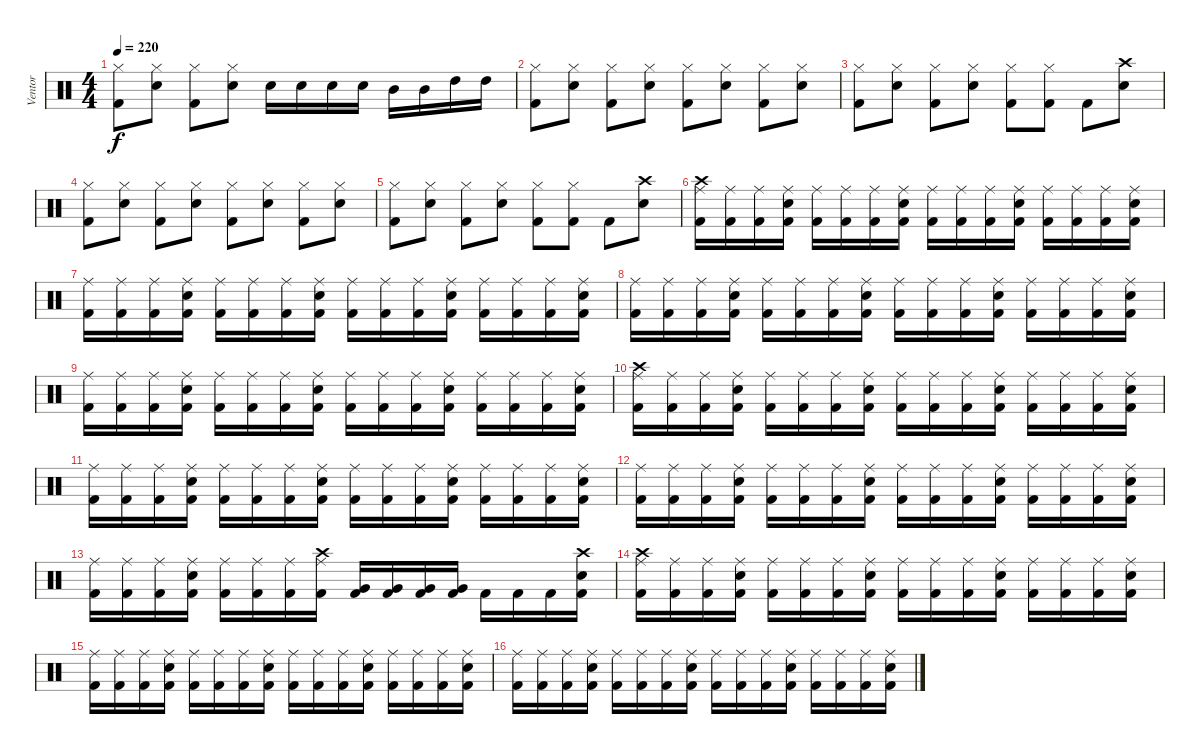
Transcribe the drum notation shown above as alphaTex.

\track ("Ventor" "Ventor") {instrument percussion}
\staff {score}
\articulation defaults
\ts (4 4)
\tempo 220
\clef neutral
\ks c
("Kick (hit) 2" "Hi-Hat (closed)").8{dy f} ("Snare (hit) 2" "Hi-Hat (closed)").8 ("Kick (hit) 2" "Hi-Hat (closed)").8 ("Snare (hit) 2" "Hi-Hat (closed)").8 "Snare (hit) 2".16 "Snare (hit) 2".16 "Snare (hit) 2".16 "Snare (hit) 2".16 "Mid Tom (hit)".16 "Mid Tom (hit)".16 "High Tom (hit)".16 "High Tom (hit)".16 |
("Kick (hit) 2" "Hi-Hat (closed)").8 ("Snare (hit) 2" "Hi-Hat (closed)").8 ("Kick (hit) 2" "Hi-Hat (closed)").8 ("Snare (hit) 2" "Hi-Hat (closed)").8 ("Kick (hit) 2" "Hi-Hat (closed)").8 ("Snare (hit) 2" "Hi-Hat (closed)").8 ("Kick (hit) 2" "Hi-Hat (closed)").8 ("Snare (hit) 2" "Hi-Hat (closed)").8 |
("Kick (hit) 2" "Hi-Hat (closed)").8 ("Snare (hit) 2" "Hi-Hat (closed)").8 ("Kick (hit) 2" "Hi-Hat (closed)").8 ("Snare (hit) 2" "Hi-Hat (closed)").8 ("Kick (hit) 2" "Hi-Hat (closed)").8 ("Kick (hit) 2" "Hi-Hat (closed)").8 "Kick (hit) 2".8 ("Snare (hit) 2" "Crash high (hit)").8 |
("Kick (hit) 2" "Hi-Hat (closed)").8 ("Snare (hit) 2" "Hi-Hat (closed)").8 ("Kick (hit) 2" "Hi-Hat (closed)").8 ("Snare (hit) 2" "Hi-Hat (closed)").8 ("Kick (hit) 2" "Hi-Hat (closed)").8 ("Snare (hit) 2" "Hi-Hat (closed)").8 ("Kick (hit) 2" "Hi-Hat (closed)").8 ("Snare (hit) 2" "Hi-Hat (closed)").8 |
("Kick (hit) 2" "Hi-Hat (closed)").8 ("Snare (hit) 2" "Hi-Hat (closed)").8 ("Kick (hit) 2" "Hi-Hat (closed)").8 ("Snare (hit) 2" "Hi-Hat (closed)").8 ("Kick (hit) 2" "Hi-Hat (closed)").8 ("Kick (hit) 2" "Hi-Hat (closed)").8 "Kick (hit) 2".8 ("Snare (hit) 2" "Crash high (hit)").8 |
("Crash high (hit)" "Kick (hit) 2" "Ride (middle)").16 ("Kick (hit) 2" "Ride (middle)").16 ("Kick (hit) 2" "Ride (middle)").16 ("Snare (hit) 2" "Kick (hit) 2" "Ride (middle)").16 ("Kick (hit) 2" "Ride (middle)").16 ("Kick (hit) 2" "Ride (middle)").16 ("Kick (hit) 2" "Ride (middle)").16 ("Snare (hit) 2" "Kick (hit) 2" "Ride (middle)").16 ("Kick (hit) 2" "Ride (middle)").16 ("Kick (hit) 2" "Ride (middle)").16 ("Kick (hit) 2" "Ride (middle)").16 ("Snare (hit) 2" "Kick (hit) 2" "Ride (middle)").16 ("Kick (hit) 2" "Ride (middle)").16 ("Kick (hit) 2" "Ride (middle)").16 ("Kick (hit) 2" "Ride (middle)").16 ("Snare (hit) 2" "Kick (hit) 2" "Ride (middle)").16 |
("Kick (hit) 2" "Ride (middle)").16 ("Kick (hit) 2" "Ride (middle)").16 ("Kick (hit) 2" "Ride (middle)").16 ("Snare (hit) 2" "Kick (hit) 2" "Ride (middle)").16 ("Kick (hit) 2" "Ride (middle)").16 ("Kick (hit) 2" "Ride (middle)").16 ("Kick (hit) 2" "Ride (middle)").16 ("Snare (hit) 2" "Kick (hit) 2" "Ride (middle)").16 ("Kick (hit) 2" "Ride (middle)").16 ("Kick (hit) 2" "Ride (middle)").16 ("Kick (hit) 2" "Ride (middle)").16 ("Snare (hit) 2" "Kick (hit) 2" "Ride (middle)").16 ("Kick (hit) 2" "Ride (middle)").16 ("Kick (hit) 2" "Ride (middle)").16 ("Kick (hit) 2" "Ride (middle)").16 ("Snare (hit) 2" "Kick (hit) 2" "Ride (middle)").16 |
("Kick (hit) 2" "Ride (middle)").16 ("Kick (hit) 2" "Ride (middle)").16 ("Kick (hit) 2" "Ride (middle)").16 ("Snare (hit) 2" "Kick (hit) 2" "Ride (middle)").16 ("Kick (hit) 2" "Ride (middle)").16 ("Kick (hit) 2" "Ride (middle)").16 ("Kick (hit) 2" "Ride (middle)").16 ("Snare (hit) 2" "Kick (hit) 2" "Ride (middle)").16 ("Kick (hit) 2" "Ride (middle)").16 ("Kick (hit) 2" "Ride (middle)").16 ("Kick (hit) 2" "Ride (middle)").16 ("Snare (hit) 2" "Kick (hit) 2" "Ride (middle)").16 ("Kick (hit) 2" "Ride (middle)").16 ("Kick (hit) 2" "Ride (middle)").16 ("Kick (hit) 2" "Ride (middle)").16 ("Snare (hit) 2" "Kick (hit) 2" "Ride (middle)").16 |
("Kick (hit) 2" "Ride (middle)").16 ("Kick (hit) 2" "Ride (middle)").16 ("Kick (hit) 2" "Ride (middle)").16 ("Snare (hit) 2" "Kick (hit) 2" "Ride (middle)").16 ("Kick (hit) 2" "Ride (middle)").16 ("Kick (hit) 2" "Ride (middle)").16 ("Kick (hit) 2" "Ride (middle)").16 ("Snare (hit) 2" "Kick (hit) 2" "Ride (middle)").16 ("Kick (hit) 2" "Ride (middle)").16 ("Kick (hit) 2" "Ride (middle)").16 ("Kick (hit) 2" "Ride (middle)").16 ("Snare (hit) 2" "Kick (hit) 2" "Ride (middle)").16 ("Kick (hit) 2" "Ride (middle)").16 ("Kick (hit) 2" "Ride (middle)").16 ("Kick (hit) 2" "Ride (middle)").16 ("Snare (hit) 2" "Kick (hit) 2" "Ride (middle)").16 |
("Crash high (hit)" "Kick (hit) 2" "Ride (middle)").16 ("Kick (hit) 2" "Ride (middle)").16 ("Kick (hit) 2" "Ride (middle)").16 ("Snare (hit) 2" "Kick (hit) 2" "Ride (middle)").16 ("Kick (hit) 2" "Ride (middle)").16 ("Kick (hit) 2" "Ride (middle)").16 ("Kick (hit) 2" "Ride (middle)").16 ("Snare (hit) 2" "Kick (hit) 2" "Ride (middle)").16 ("Kick (hit) 2" "Ride (middle)").16 ("Kick (hit) 2" "Ride (middle)").16 ("Kick (hit) 2" "Ride (middle)").16 ("Snare (hit) 2" "Kick (hit) 2" "Ride (middle)").16 ("Kick (hit) 2" "Ride (middle)").16 ("Kick (hit) 2" "Ride (middle)").16 ("Kick (hit) 2" "Ride (middle)").16 ("Snare (hit) 2" "Kick (hit) 2" "Ride (middle)").16 |
("Kick (hit) 2" "Ride (middle)").16 ("Kick (hit) 2" "Ride (middle)").16 ("Kick (hit) 2" "Ride (middle)").16 ("Snare (hit) 2" "Kick (hit) 2" "Ride (middle)").16 ("Kick (hit) 2" "Ride (middle)").16 ("Kick (hit) 2" "Ride (middle)").16 ("Kick (hit) 2" "Ride (middle)").16 ("Snare (hit) 2" "Kick (hit) 2" "Ride (middle)").16 ("Kick (hit) 2" "Ride (middle)").16 ("Kick (hit) 2" "Ride (middle)").16 ("Kick (hit) 2" "Ride (middle)").16 ("Snare (hit) 2" "Kick (hit) 2" "Ride (middle)").16 ("Kick (hit) 2" "Ride (middle)").16 ("Kick (hit) 2" "Ride (middle)").16 ("Kick (hit) 2" "Ride (middle)").16 ("Snare (hit) 2" "Kick (hit) 2" "Ride (middle)").16 |
("Kick (hit) 2" "Ride (middle)").16 ("Kick (hit) 2" "Ride (middle)").16 ("Kick (hit) 2" "Ride (middle)").16 ("Snare (hit) 2" "Kick (hit) 2" "Ride (middle)").16 ("Kick (hit) 2" "Ride (middle)").16 ("Kick (hit) 2" "Ride (middle)").16 ("Kick (hit) 2" "Ride (middle)").16 ("Snare (hit) 2" "Kick (hit) 2" "Ride (middle)").16 ("Kick (hit) 2" "Ride (middle)").16 ("Kick (hit) 2" "Ride (middle)").16 ("Kick (hit) 2" "Ride (middle)").16 ("Snare (hit) 2" "Kick (hit) 2" "Ride (middle)").16 ("Kick (hit) 2" "Ride (middle)").16 ("Kick (hit) 2" "Ride (middle)").16 ("Kick (hit) 2" "Ride (middle)").16 ("Snare (hit) 2" "Kick (hit) 2" "Ride (middle)").16 |
("Kick (hit) 2" "Ride (middle)").16 ("Kick (hit) 2" "Ride (middle)").16 ("Kick (hit) 2" "Ride (middle)").16 ("Snare (hit) 2" "Kick (hit) 2" "Ride (middle)").16 ("Kick (hit) 2" "Ride (middle)").16 ("Kick (hit) 2" "Ride (middle)").16 ("Kick (hit) 2" "Ride (middle)").16 ("Crash high (hit)" "Kick (hit) 2" "Ride (middle)").16 ("Kick (hit) 2" "Very Low Tom (hit)").16 ("Kick (hit) 2" "Very Low Tom (hit)").16 ("Kick (hit) 2" "Very Low Tom (hit)").16 ("Kick (hit) 2" "Very Low Tom (hit)").16 "Kick (hit) 2".16 "Kick (hit) 2".16 "Kick (hit) 2".16 ("Crash high (hit)" "Snare (hit) 2" "Kick (hit) 2").16 |
("Crash high (hit)" "Kick (hit) 2" "Ride (middle)").16 ("Kick (hit) 2" "Ride (middle)").16 ("Kick (hit) 2" "Ride (middle)").16 ("Snare (hit) 2" "Kick (hit) 2" "Ride (middle)").16 ("Kick (hit) 2" "Ride (middle)").16 ("Kick (hit) 2" "Ride (middle)").16 ("Kick (hit) 2" "Ride (middle)").16 ("Snare (hit) 2" "Kick (hit) 2" "Ride (middle)").16 ("Kick (hit) 2" "Ride (middle)").16 ("Kick (hit) 2" "Ride (middle)").16 ("Kick (hit) 2" "Ride (middle)").16 ("Snare (hit) 2" "Kick (hit) 2" "Ride (middle)").16 ("Kick (hit) 2" "Ride (middle)").16 ("Kick (hit) 2" "Ride (middle)").16 ("Kick (hit) 2" "Ride (middle)").16 ("Snare (hit) 2" "Kick (hit) 2" "Ride (middle)").16 |
("Kick (hit) 2" "Ride (middle)").16 ("Kick (hit) 2" "Ride (middle)").16 ("Kick (hit) 2" "Ride (middle)").16 ("Snare (hit) 2" "Kick (hit) 2" "Ride (middle)").16 ("Kick (hit) 2" "Ride (middle)").16 ("Kick (hit) 2" "Ride (middle)").16 ("Kick (hit) 2" "Ride (middle)").16 ("Snare (hit) 2" "Kick (hit) 2" "Ride (middle)").16 ("Kick (hit) 2" "Ride (middle)").16 ("Kick (hit) 2" "Ride (middle)").16 ("Kick (hit) 2" "Ride (middle)").16 ("Snare (hit) 2" "Kick (hit) 2" "Ride (middle)").16 ("Kick (hit) 2" "Ride (middle)").16 ("Kick (hit) 2" "Ride (middle)").16 ("Kick (hit) 2" "Ride (middle)").16 ("Snare (hit) 2" "Kick (hit) 2" "Ride (middle)").16 |
("Kick (hit) 2" "Ride (middle)").16 ("Kick (hit) 2" "Ride (middle)").16 ("Kick (hit) 2" "Ride (middle)").16 ("Snare (hit) 2" "Kick (hit) 2" "Ride (middle)").16 ("Kick (hit) 2" "Ride (middle)").16 ("Kick (hit) 2" "Ride (middle)").16 ("Kick (hit) 2" "Ride (middle)").16 ("Snare (hit) 2" "Kick (hit) 2" "Ride (middle)").16 ("Kick (hit) 2" "Ride (middle)").16 ("Kick (hit) 2" "Ride (middle)").16 ("Kick (hit) 2" "Ride (middle)").16 ("Snare (hit) 2" "Kick (hit) 2" "Ride (middle)").16 ("Kick (hit) 2" "Ride (middle)").16 ("Kick (hit) 2" "Ride (middle)").16 ("Kick (hit) 2" "Ride (middle)").16 ("Snare (hit) 2" "Kick (hit) 2" "Ride (middle)").16
